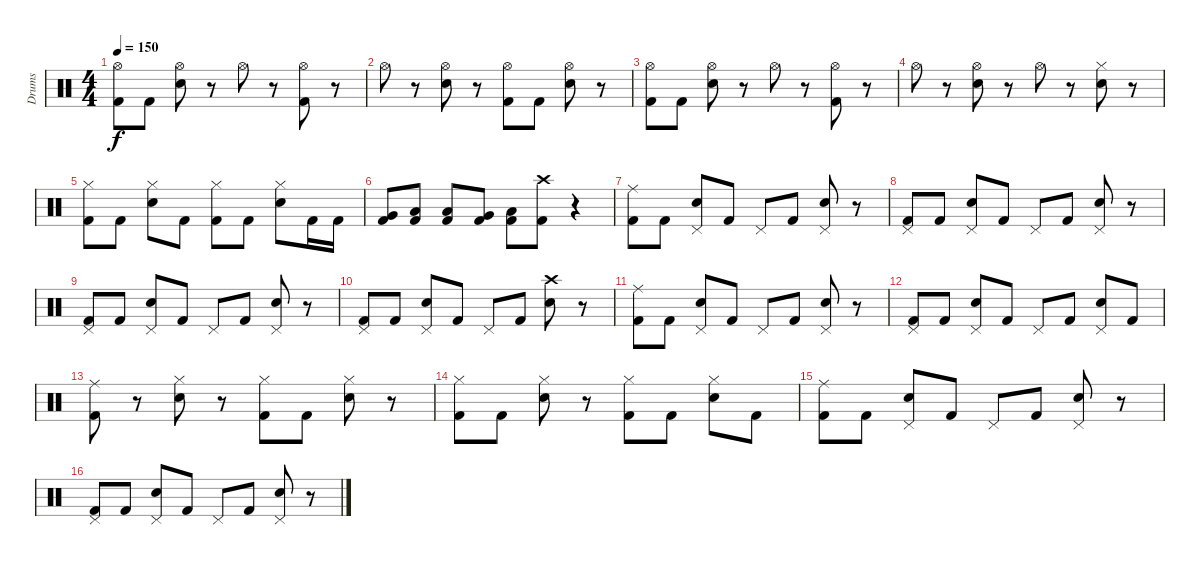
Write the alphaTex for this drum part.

\track ("Drums" "Drums") {instrument percussion}
\staff {score}
\articulation defaults
\ts (4 4)
\tempo 150
\clef neutral
\ks c
("Hi-Hat (open)" "Kick (hit) 2").8{dy f} "Kick (hit) 2".8 ("Hi-Hat (open)" "Electric Snare (hit)").8 r.8 "Hi-Hat (open)".8 r.8 ("Hi-Hat (open)" "Kick (hit) 2").8 r.8 |
"Hi-Hat (open)".8 r.8 ("Hi-Hat (open)" "Electric Snare (hit)").8 r.8 ("Hi-Hat (open)" "Kick (hit) 2").8 "Kick (hit) 2".8 ("Hi-Hat (open)" "Electric Snare (hit)").8 r.8 |
("Hi-Hat (open)" "Kick (hit) 2").8 "Kick (hit) 2".8 ("Hi-Hat (open)" "Electric Snare (hit)").8 r.8 "Hi-Hat (open)".8 r.8 ("Hi-Hat (open)" "Kick (hit) 2").8 r.8 |
"Hi-Hat (open)".8 r.8 ("Hi-Hat (open)" "Electric Snare (hit)").8 r.8 "Hi-Hat (open)".8 r.8 ("Hi-Hat (closed)" "Electric Snare (hit)").8 r.8 |
("Hi-Hat (closed)" "Kick (hit) 2").8 "Kick (hit) 2".8 ("Hi-Hat (closed)" "Electric Snare (hit)").8 "Kick (hit) 2".8 ("Hi-Hat (closed)" "Kick (hit) 2").8 "Kick (hit) 2".8 ("Hi-Hat (closed)" "Electric Snare (hit)").8 "Kick (hit) 2".16 "Kick (hit) 2".16 |
("Very Low Tom (hit)" "Kick (hit) 2").8 ("Low Floor Tom (hit)" "Kick (hit) 2").8 ("Low Floor Tom (hit)" "Kick (hit) 2").8 ("Very Low Tom (hit)" "Kick (hit) 2").8 ("Low Floor Tom (hit)" "Kick (hit) 2").8 ("Crash high (hit)" "Kick (hit) 2").8 r.4 |
("Ride (middle)" "Kick (hit) 2").8 "Kick (hit) 2".8 ("Pedal Hi-Hat (hit)" "Electric Snare (hit)").8 "Kick (hit) 2".8 "Pedal Hi-Hat (hit)".8 "Kick (hit) 2".8 ("Pedal Hi-Hat (hit)" "Electric Snare (hit)").8 r.8 |
("Pedal Hi-Hat (hit)" "Kick (hit) 2").8 "Kick (hit) 2".8 ("Pedal Hi-Hat (hit)" "Electric Snare (hit)").8 "Kick (hit) 2".8 "Pedal Hi-Hat (hit)".8 "Kick (hit) 2".8 ("Pedal Hi-Hat (hit)" "Electric Snare (hit)").8 r.8 |
("Pedal Hi-Hat (hit)" "Kick (hit) 2").8 "Kick (hit) 2".8 ("Pedal Hi-Hat (hit)" "Electric Snare (hit)").8 "Kick (hit) 2".8 "Pedal Hi-Hat (hit)".8 "Kick (hit) 2".8 ("Pedal Hi-Hat (hit)" "Electric Snare (hit)").8 r.8 |
("Pedal Hi-Hat (hit)" "Kick (hit) 2").8 "Kick (hit) 2".8 ("Pedal Hi-Hat (hit)" "Electric Snare (hit)").8 "Kick (hit) 2".8 "Pedal Hi-Hat (hit)".8 "Kick (hit) 2".8 ("Crash high (hit)" "Electric Snare (hit)").8 r.8 |
("Ride (middle)" "Kick (hit) 2").8 "Kick (hit) 2".8 ("Pedal Hi-Hat (hit)" "Electric Snare (hit)").8 "Kick (hit) 2".8 "Pedal Hi-Hat (hit)".8 "Kick (hit) 2".8 ("Pedal Hi-Hat (hit)" "Electric Snare (hit)").8 r.8 |
("Pedal Hi-Hat (hit)" "Kick (hit) 2").8 "Kick (hit) 2".8 ("Pedal Hi-Hat (hit)" "Electric Snare (hit)").8 "Kick (hit) 2".8 "Pedal Hi-Hat (hit)".8 "Kick (hit) 2".8 ("Pedal Hi-Hat (hit)" "Electric Snare (hit)").8 "Kick (hit) 2".8 |
("Ride (middle)" "Kick (hit) 2").8 r.8 ("Hi-Hat (closed)" "Electric Snare (hit)").8 r.8 ("Hi-Hat (closed)" "Kick (hit) 2").8 "Kick (hit) 2".8 ("Hi-Hat (closed)" "Electric Snare (hit)").8 r.8 |
("Hi-Hat (closed)" "Kick (hit) 2").8 "Kick (hit) 2".8 ("Hi-Hat (closed)" "Electric Snare (hit)").8 r.8 ("Hi-Hat (closed)" "Kick (hit) 2").8 "Kick (hit) 2".8 ("Hi-Hat (closed)" "Electric Snare (hit)").8 "Kick (hit) 2".8 |
("Ride (middle)" "Kick (hit) 2").8 "Kick (hit) 2".8 ("Pedal Hi-Hat (hit)" "Electric Snare (hit)").8 "Kick (hit) 2".8 "Pedal Hi-Hat (hit)".8 "Kick (hit) 2".8 ("Pedal Hi-Hat (hit)" "Electric Snare (hit)").8 r.8 |
("Pedal Hi-Hat (hit)" "Kick (hit) 2").8 "Kick (hit) 2".8 ("Pedal Hi-Hat (hit)" "Electric Snare (hit)").8 "Kick (hit) 2".8 "Pedal Hi-Hat (hit)".8 "Kick (hit) 2".8 ("Pedal Hi-Hat (hit)" "Electric Snare (hit)").8 r.8
